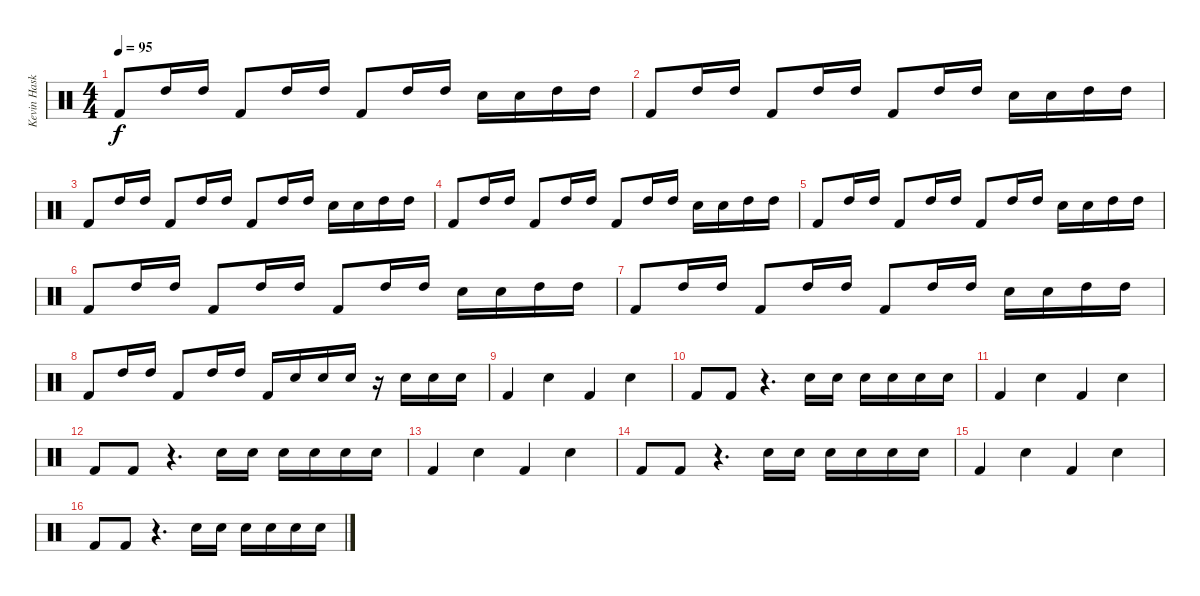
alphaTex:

\track ("Kevin Haskins" "Kevin Hask") {instrument percussion}
\staff {score}
\articulation defaults
\ts (4 4)
\tempo 95
\clef neutral
\ks c "Kick (hit) 2".8{dy f} "High Tom (hit)".16 "High Tom (hit)".16 "Kick (hit) 2".8 "High Tom (hit)".16 "High Tom (hit)".16 "Kick (hit) 2".8 "High Tom (hit)".16 "High Tom (hit)".16 "Electric Snare (hit)".16 "Electric Snare (hit)".16 "High Tom (hit)".16 "High Tom (hit)".16
|
"Kick (hit) 2".8 "High Tom (hit)".16 "High Tom (hit)".16 "Kick (hit) 2".8 "High Tom (hit)".16 "High Tom (hit)".16 "Kick (hit) 2".8 "High Tom (hit)".16 "High Tom (hit)".16 "Electric Snare (hit)".16 "Electric Snare (hit)".16 "High Tom (hit)".16 "High Tom (hit)".16 |
"Kick (hit) 2".8 "High Tom (hit)".16 "High Tom (hit)".16 "Kick (hit) 2".8 "High Tom (hit)".16 "High Tom (hit)".16 "Kick (hit) 2".8 "High Tom (hit)".16 "High Tom (hit)".16 "Electric Snare (hit)".16 "Electric Snare (hit)".16 "High Tom (hit)".16 "High Tom (hit)".16 |
"Kick (hit) 2".8 "High Tom (hit)".16 "High Tom (hit)".16 "Kick (hit) 2".8 "High Tom (hit)".16 "High Tom (hit)".16 "Kick (hit) 2".8 "High Tom (hit)".16 "High Tom (hit)".16 "Electric Snare (hit)".16 "Electric Snare (hit)".16 "High Tom (hit)".16 "High Tom (hit)".16 |
"Kick (hit) 2".8 "High Tom (hit)".16 "High Tom (hit)".16 "Kick (hit) 2".8 "High Tom (hit)".16 "High Tom (hit)".16 "Kick (hit) 2".8 "High Tom (hit)".16 "High Tom (hit)".16 "Electric Snare (hit)".16 "Electric Snare (hit)".16 "High Tom (hit)".16 "High Tom (hit)".16 |
"Kick (hit) 2".8 "High Tom (hit)".16 "High Tom (hit)".16 "Kick (hit) 2".8 "High Tom (hit)".16 "High Tom (hit)".16 "Kick (hit) 2".8 "High Tom (hit)".16 "High Tom (hit)".16 "Electric Snare (hit)".16 "Electric Snare (hit)".16 "High Tom (hit)".16 "High Tom (hit)".16 |
"Kick (hit) 2".8 "High Tom (hit)".16 "High Tom (hit)".16 "Kick (hit) 2".8 "High Tom (hit)".16 "High Tom (hit)".16 "Kick (hit) 2".8 "High Tom (hit)".16 "High Tom (hit)".16 "Electric Snare (hit)".16 "Electric Snare (hit)".16 "High Tom (hit)".16 "High Tom (hit)".16 |
"Kick (hit) 2".8 "High Tom (hit)".16 "High Tom (hit)".16 "Kick (hit) 2".8 "High Tom (hit)".16 "High Tom (hit)".16 "Kick (hit) 2".16 "Electric Snare (hit)".16 "Electric Snare (hit)".16 "Electric Snare (hit)".16 r.16 "Electric Snare (hit)".16 "Electric Snare (hit)".16 "Electric Snare (hit)".16 |
"Kick (hit) 2".4 "Electric Snare (hit)".4 "Kick (hit) 2".4 "Electric Snare (hit)".4 |
"Kick (hit) 2".8 "Kick (hit) 2".8 r.4{d} "Electric Snare (hit)".16 "Electric Snare (hit)".16 "Electric Snare (hit)".16 "Electric Snare (hit)".16 "Electric Snare (hit)".16 "Electric Snare (hit)".16 |
"Kick (hit) 2".4 "Electric Snare (hit)".4 "Kick (hit) 2".4 "Electric Snare (hit)".4 |
"Kick (hit) 2".8 "Kick (hit) 2".8 r.4{d} "Electric Snare (hit)".16 "Electric Snare (hit)".16 "Electric Snare (hit)".16 "Electric Snare (hit)".16 "Electric Snare (hit)".16 "Electric Snare (hit)".16 |
"Kick (hit) 2".4 "Electric Snare (hit)".4 "Kick (hit) 2".4 "Electric Snare (hit)".4 |
"Kick (hit) 2".8 "Kick (hit) 2".8 r.4{d} "Electric Snare (hit)".16 "Electric Snare (hit)".16 "Electric Snare (hit)".16 "Electric Snare (hit)".16 "Electric Snare (hit)".16 "Electric Snare (hit)".16 |
"Kick (hit) 2".4 "Electric Snare (hit)".4 "Kick (hit) 2".4 "Electric Snare (hit)".4 |
"Kick (hit) 2".8 "Kick (hit) 2".8 r.4{d} "Electric Snare (hit)".16 "Electric Snare (hit)".16 "Electric Snare (hit)".16 "Electric Snare (hit)".16 "Electric Snare (hit)".16 "Electric Snare (hit)".16
